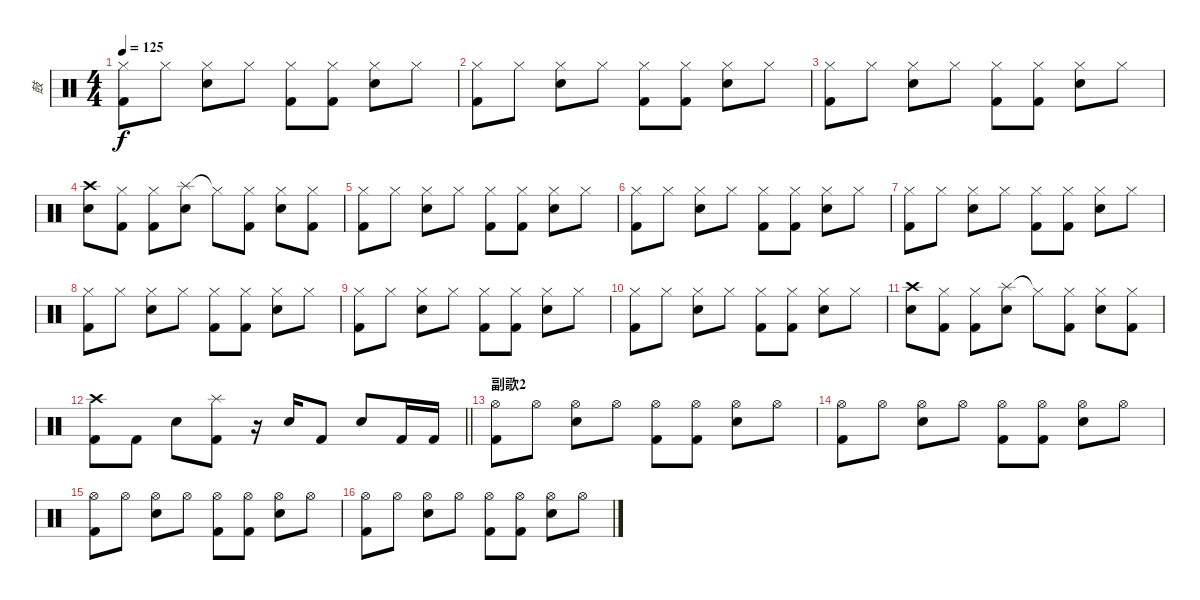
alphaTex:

\track ("鼓" "鼓") {instrument percussion}
\staff {score}
\articulation defaults
\ts (4 4)
\tempo 125
\clef neutral
\ks c
("Hi-Hat (closed)" "Kick (hit) 2").8{dy f} "Hi-Hat (closed)".8 ("Hi-Hat (closed)" "Snare (hit) 2").8 "Hi-Hat (closed)".8 ("Hi-Hat (closed)" "Kick (hit) 2").8 ("Hi-Hat (closed)" "Kick (hit) 2").8 ("Hi-Hat (closed)" "Snare (hit) 2").8 "Hi-Hat (closed)".8 |
("Hi-Hat (closed)" "Kick (hit) 2").8 "Hi-Hat (closed)".8 ("Hi-Hat (closed)" "Snare (hit) 2").8 "Hi-Hat (closed)".8 ("Hi-Hat (closed)" "Kick (hit) 2").8 ("Hi-Hat (closed)" "Kick (hit) 2").8 ("Hi-Hat (closed)" "Snare (hit) 2").8 "Hi-Hat (closed)".8 |
("Hi-Hat (closed)" "Kick (hit) 2").8 "Hi-Hat (closed)".8 ("Hi-Hat (closed)" "Snare (hit) 2").8 "Hi-Hat (closed)".8 ("Hi-Hat (closed)" "Kick (hit) 2").8 ("Hi-Hat (closed)" "Kick (hit) 2").8 ("Hi-Hat (closed)" "Snare (hit) 2").8 "Hi-Hat (closed)".8 |
("Crash high (hit)" "Snare (hit) 2").8 ("Hi-Hat (closed)" "Kick (hit) 2").8 ("Hi-Hat (closed)" "Kick (hit) 2").8 ("Splash (hit)" "Snare (hit) 2").8 "Hi-Hat (closed)"{t}.8 ("Hi-Hat (closed)" "Kick (hit) 2").8 ("Hi-Hat (closed)" "Snare (hit) 2").8 ("Hi-Hat (closed)" "Kick (hit) 2").8 |
("Hi-Hat (closed)" "Kick (hit) 2").8 "Hi-Hat (closed)".8 ("Hi-Hat (closed)" "Snare (hit) 2").8 "Hi-Hat (closed)".8 ("Hi-Hat (closed)" "Kick (hit) 2").8 ("Hi-Hat (closed)" "Kick (hit) 2").8 ("Hi-Hat (closed)" "Snare (hit) 2").8 "Hi-Hat (closed)".8 |
("Hi-Hat (closed)" "Kick (hit) 2").8 "Hi-Hat (closed)".8 ("Hi-Hat (closed)" "Snare (hit) 2").8 "Hi-Hat (closed)".8 ("Hi-Hat (closed)" "Kick (hit) 2").8 ("Hi-Hat (closed)" "Kick (hit) 2").8 ("Hi-Hat (closed)" "Snare (hit) 2").8 "Hi-Hat (closed)".8 |
("Hi-Hat (closed)" "Kick (hit) 2").8 "Hi-Hat (closed)".8 ("Hi-Hat (closed)" "Snare (hit) 2").8 "Hi-Hat (closed)".8 ("Hi-Hat (closed)" "Kick (hit) 2").8 ("Hi-Hat (closed)" "Kick (hit) 2").8 ("Hi-Hat (closed)" "Snare (hit) 2").8 "Hi-Hat (closed)".8 |
("Hi-Hat (closed)" "Kick (hit) 2").8 "Hi-Hat (closed)".8 ("Hi-Hat (closed)" "Snare (hit) 2").8 "Hi-Hat (closed)".8 ("Hi-Hat (closed)" "Kick (hit) 2").8 ("Hi-Hat (closed)" "Kick (hit) 2").8 ("Hi-Hat (closed)" "Snare (hit) 2").8 "Hi-Hat (closed)".8 |
("Hi-Hat (closed)" "Kick (hit) 2").8 "Hi-Hat (closed)".8 ("Hi-Hat (closed)" "Snare (hit) 2").8 "Hi-Hat (closed)".8 ("Hi-Hat (closed)" "Kick (hit) 2").8 ("Hi-Hat (closed)" "Kick (hit) 2").8 ("Hi-Hat (closed)" "Snare (hit) 2").8 "Hi-Hat (closed)".8 |
("Hi-Hat (closed)" "Kick (hit) 2").8 "Hi-Hat (closed)".8 ("Hi-Hat (closed)" "Snare (hit) 2").8 "Hi-Hat (closed)".8 ("Hi-Hat (closed)" "Kick (hit) 2").8 ("Hi-Hat (closed)" "Kick (hit) 2").8 ("Hi-Hat (closed)" "Snare (hit) 2").8 "Hi-Hat (closed)".8 |
("Crash high (hit)" "Snare (hit) 2").8 ("Hi-Hat (closed)" "Kick (hit) 2").8 ("Hi-Hat (closed)" "Kick (hit) 2").8 ("Splash (hit)" "Snare (hit) 2").8 "Hi-Hat (closed)"{t}.8 ("Hi-Hat (closed)" "Kick (hit) 2").8 ("Hi-Hat (closed)" "Snare (hit) 2").8 ("Hi-Hat (closed)" "Kick (hit) 2").8 |
\barLineRight lightlight
("Crash high (hit)" "Kick (hit) 2").8 "Kick (hit) 2".8 "Snare (hit) 2".8 ("Splash (hit)" "Kick (hit) 2").8 r.16 "Snare (hit) 2".16 "Kick (hit) 2".8 "Snare (hit) 2".8 "Kick (hit) 2".16 "Kick (hit) 2".16 |
\section ("" "副歌2")
("Hi-Hat (open)" "Kick (hit) 2").8 "Hi-Hat (open)".8 ("Hi-Hat (open)" "Snare (hit) 2").8 "Hi-Hat (open)".8 ("Hi-Hat (open)" "Kick (hit) 2").8 ("Hi-Hat (open)" "Kick (hit) 2").8 ("Hi-Hat (open)" "Snare (hit) 2").8 "Hi-Hat (open)".8 |
("Hi-Hat (open)" "Kick (hit) 2").8 "Hi-Hat (open)".8 ("Hi-Hat (open)" "Snare (hit) 2").8 "Hi-Hat (open)".8 ("Hi-Hat (open)" "Kick (hit) 2").8 ("Hi-Hat (open)" "Kick (hit) 2").8 ("Hi-Hat (open)" "Snare (hit) 2").8 "Hi-Hat (open)".8 |
("Hi-Hat (open)" "Kick (hit) 2").8 "Hi-Hat (open)".8 ("Hi-Hat (open)" "Snare (hit) 2").8 "Hi-Hat (open)".8 ("Hi-Hat (open)" "Kick (hit) 2").8 ("Hi-Hat (open)" "Kick (hit) 2").8 ("Hi-Hat (open)" "Snare (hit) 2").8 "Hi-Hat (open)".8 |
("Hi-Hat (open)" "Kick (hit) 2").8 "Hi-Hat (open)".8 ("Hi-Hat (open)" "Snare (hit) 2").8 "Hi-Hat (open)".8 ("Hi-Hat (open)" "Kick (hit) 2").8 ("Hi-Hat (open)" "Kick (hit) 2").8 ("Hi-Hat (open)" "Snare (hit) 2").8 "Hi-Hat (open)".8
